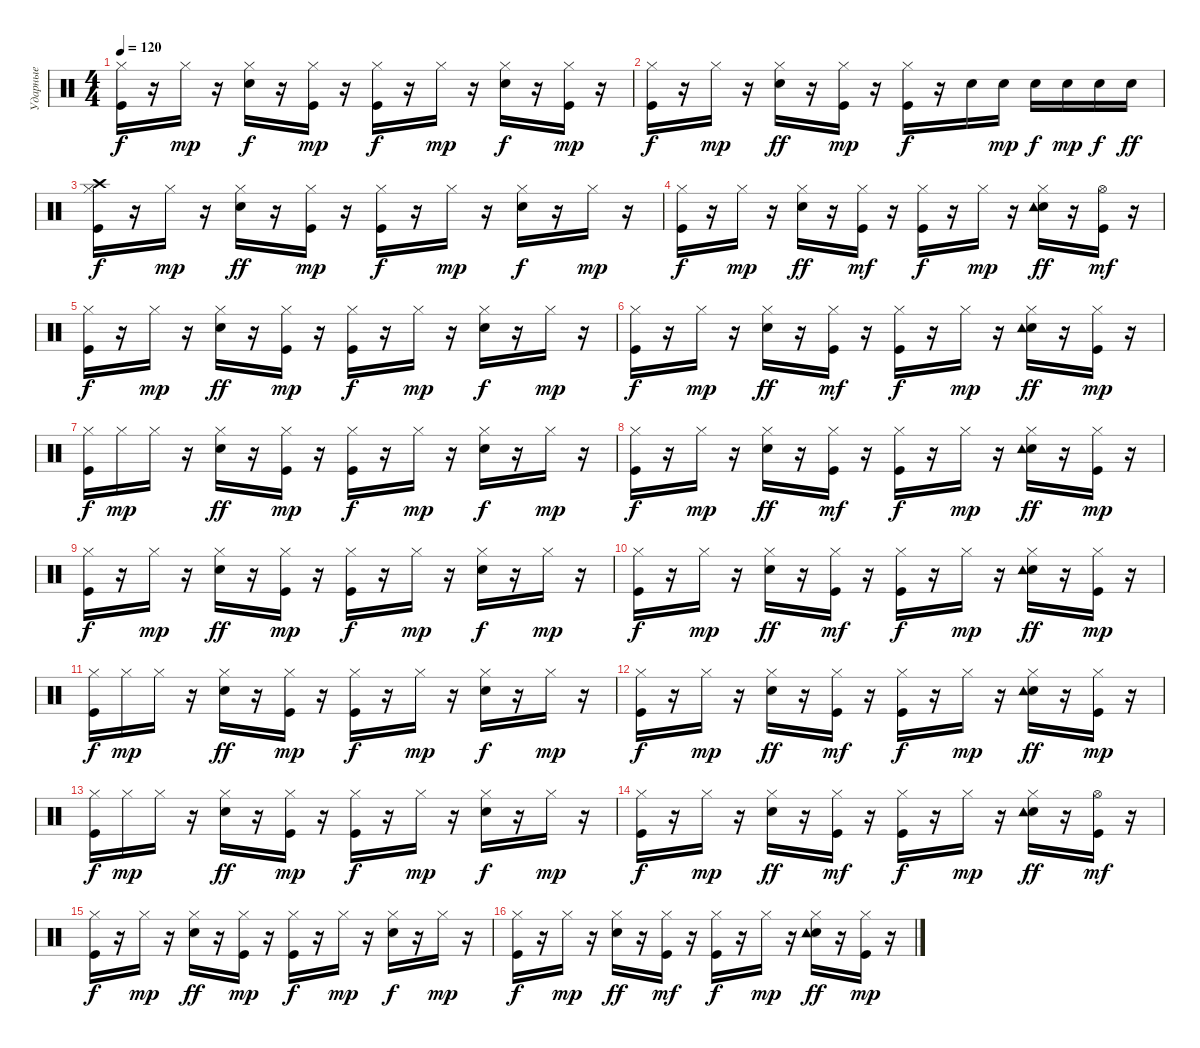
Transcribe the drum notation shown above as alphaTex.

\track ("Ударные" "Ударные") {instrument percussion}
\staff {score}
\articulation defaults
\ts (4 4)
\tempo 120
\clef neutral
\ks c
("Kick (hit)" "Hi-Hat (closed)").16{dy f} r.16 "Hi-Hat (closed)".16{dy mp} r.16 ("Snare (hit) 2" "Hi-Hat (closed)").16{dy f} r.16 ("Kick (hit)" "Hi-Hat (closed)").16{dy mp} r.16 ("Kick (hit)" "Hi-Hat (closed)").16{dy f} r.16 "Hi-Hat (closed)".16{dy mp} r.16 ("Snare (hit) 2" "Hi-Hat (closed)").16{dy f} r.16 ("Kick (hit)" "Hi-Hat (closed)").16{dy mp} r.16 |
("Kick (hit)" "Hi-Hat (closed)").16{dy f} r.16 "Hi-Hat (closed)".16{dy mp} r.16 ("Snare (hit) 2" "Hi-Hat (closed)").16{dy ff} r.16 ("Kick (hit)" "Hi-Hat (closed)").16{dy mp} r.16 ("Kick (hit)" "Hi-Hat (closed)").16{dy f} r.16 "Snare (hit) 2".16 "Snare (hit) 2".16{dy mp} "Snare (hit) 2".16{dy f} "Snare (hit) 2".16{dy mp} "Snare (hit) 2".16{dy f} "Snare (hit) 2".16{dy ff} |
("Kick (hit)" "Hi-Hat (closed)" "Crash high (hit)").16{dy f} r.16 "Hi-Hat (closed)".16{dy mp} r.16 ("Snare (hit) 2" "Hi-Hat (closed)").16{dy ff} r.16 ("Kick (hit)" "Hi-Hat (closed)").16{dy mp} r.16 ("Kick (hit)" "Hi-Hat (closed)").16{dy f} r.16 "Hi-Hat (closed)".16{dy mp} r.16 ("Snare (hit) 2" "Hi-Hat (closed)").16{dy f} r.16 "Hi-Hat (closed)".16{dy mp} r.16 |
("Kick (hit)" "Hi-Hat (closed)").16{dy f} r.16 "Hi-Hat (closed)".16{dy mp} r.16 ("Snare (hit) 2" "Hi-Hat (closed)").16{dy ff} r.16 ("Kick (hit)" "Hi-Hat (closed)").16{dy mf} r.16 ("Kick (hit)" "Hi-Hat (closed)").16{dy f} r.16 "Hi-Hat (closed)".16{dy mp} r.16 ("Snare (hit) 2" "Hi-Hat (closed)" "Tambourine (hit)").16{dy ff} r.16 ("Kick (hit)" "Hi-Hat (open)").16{dy mf} r.16 |
("Kick (hit)" "Hi-Hat (closed)").16{dy f} r.16 "Hi-Hat (closed)".16{dy mp} r.16 ("Snare (hit) 2" "Hi-Hat (closed)").16{dy ff} r.16 ("Kick (hit)" "Hi-Hat (closed)").16{dy mp} r.16 ("Kick (hit)" "Hi-Hat (closed)").16{dy f} r.16 "Hi-Hat (closed)".16{dy mp} r.16 ("Snare (hit) 2" "Hi-Hat (closed)").16{dy f} r.16 "Hi-Hat (closed)".16{dy mp} r.16 |
("Kick (hit)" "Hi-Hat (closed)").16{dy f} r.16 "Hi-Hat (closed)".16{dy mp} r.16 ("Snare (hit) 2" "Hi-Hat (closed)").16{dy ff} r.16 ("Kick (hit)" "Hi-Hat (closed)").16{dy mf} r.16 ("Kick (hit)" "Hi-Hat (closed)").16{dy f} r.16 "Hi-Hat (closed)".16{dy mp} r.16 ("Snare (hit) 2" "Hi-Hat (closed)" "Tambourine (hit)").16{dy ff} r.16 ("Kick (hit)" "Hi-Hat (closed)").16{dy mp} r.16 |
("Kick (hit)" "Hi-Hat (closed)").16{dy f} "Hi-Hat (closed)".16{dy mp} "Hi-Hat (closed)".16 r.16 ("Snare (hit) 2" "Hi-Hat (closed)").16{dy ff} r.16 ("Kick (hit)" "Hi-Hat (closed)").16{dy mp} r.16 ("Kick (hit)" "Hi-Hat (closed)").16{dy f} r.16 "Hi-Hat (closed)".16{dy mp} r.16 ("Snare (hit) 2" "Hi-Hat (closed)").16{dy f} r.16 "Hi-Hat (closed)".16{dy mp} r.16 |
("Kick (hit)" "Hi-Hat (closed)").16{dy f} r.16 "Hi-Hat (closed)".16{dy mp} r.16 ("Snare (hit) 2" "Hi-Hat (closed)").16{dy ff} r.16 ("Kick (hit)" "Hi-Hat (closed)").16{dy mf} r.16 ("Kick (hit)" "Hi-Hat (closed)").16{dy f} r.16 "Hi-Hat (closed)".16{dy mp} r.16 ("Snare (hit) 2" "Hi-Hat (closed)" "Tambourine (hit)").16{dy ff} r.16 ("Kick (hit)" "Hi-Hat (closed)").16{dy mp} r.16 |
("Kick (hit)" "Hi-Hat (closed)").16{dy f} r.16 "Hi-Hat (closed)".16{dy mp} r.16 ("Snare (hit) 2" "Hi-Hat (closed)").16{dy ff} r.16 ("Kick (hit)" "Hi-Hat (closed)").16{dy mp} r.16 ("Kick (hit)" "Hi-Hat (closed)").16{dy f} r.16 "Hi-Hat (closed)".16{dy mp} r.16 ("Snare (hit) 2" "Hi-Hat (closed)").16{dy f} r.16 "Hi-Hat (closed)".16{dy mp} r.16 |
("Kick (hit)" "Hi-Hat (closed)").16{dy f} r.16 "Hi-Hat (closed)".16{dy mp} r.16 ("Snare (hit) 2" "Hi-Hat (closed)").16{dy ff} r.16 ("Kick (hit)" "Hi-Hat (closed)").16{dy mf} r.16 ("Kick (hit)" "Hi-Hat (closed)").16{dy f} r.16 "Hi-Hat (closed)".16{dy mp} r.16 ("Snare (hit) 2" "Hi-Hat (closed)" "Tambourine (hit)").16{dy ff} r.16 ("Kick (hit)" "Hi-Hat (closed)").16{dy mp} r.16 |
("Kick (hit)" "Hi-Hat (closed)").16{dy f} "Hi-Hat (closed)".16{dy mp} "Hi-Hat (closed)".16 r.16 ("Snare (hit) 2" "Hi-Hat (closed)").16{dy ff} r.16 ("Kick (hit)" "Hi-Hat (closed)").16{dy mp} r.16 ("Kick (hit)" "Hi-Hat (closed)").16{dy f} r.16 "Hi-Hat (closed)".16{dy mp} r.16 ("Snare (hit) 2" "Hi-Hat (closed)").16{dy f} r.16 "Hi-Hat (closed)".16{dy mp} r.16 |
("Kick (hit)" "Hi-Hat (closed)").16{dy f} r.16 "Hi-Hat (closed)".16{dy mp} r.16 ("Snare (hit) 2" "Hi-Hat (closed)").16{dy ff} r.16 ("Kick (hit)" "Hi-Hat (closed)").16{dy mf} r.16 ("Kick (hit)" "Hi-Hat (closed)").16{dy f} r.16 "Hi-Hat (closed)".16{dy mp} r.16 ("Snare (hit) 2" "Hi-Hat (closed)" "Tambourine (hit)").16{dy ff} r.16 ("Kick (hit)" "Hi-Hat (closed)").16{dy mp} r.16 |
("Kick (hit)" "Hi-Hat (closed)").16{dy f} "Hi-Hat (closed)".16{dy mp} "Hi-Hat (closed)".16 r.16 ("Snare (hit) 2" "Hi-Hat (closed)").16{dy ff} r.16 ("Kick (hit)" "Hi-Hat (closed)").16{dy mp} r.16 ("Kick (hit)" "Hi-Hat (closed)").16{dy f} r.16 "Hi-Hat (closed)".16{dy mp} r.16 ("Snare (hit) 2" "Hi-Hat (closed)").16{dy f} r.16 "Hi-Hat (closed)".16{dy mp} r.16 |
("Kick (hit)" "Hi-Hat (closed)").16{dy f} r.16 "Hi-Hat (closed)".16{dy mp} r.16 ("Snare (hit) 2" "Hi-Hat (closed)").16{dy ff} r.16 ("Kick (hit)" "Hi-Hat (closed)").16{dy mf} r.16 ("Kick (hit)" "Hi-Hat (closed)").16{dy f} r.16 "Hi-Hat (closed)".16{dy mp} r.16 ("Snare (hit) 2" "Hi-Hat (closed)" "Tambourine (hit)").16{dy ff} r.16 ("Kick (hit)" "Hi-Hat (open)").16{dy mf} r.16 |
("Kick (hit)" "Hi-Hat (closed)").16{dy f} r.16 "Hi-Hat (closed)".16{dy mp} r.16 ("Snare (hit) 2" "Hi-Hat (closed)").16{dy ff} r.16 ("Kick (hit)" "Hi-Hat (closed)").16{dy mp} r.16 ("Kick (hit)" "Hi-Hat (closed)").16{dy f} r.16 "Hi-Hat (closed)".16{dy mp} r.16 ("Snare (hit) 2" "Hi-Hat (closed)").16{dy f} r.16 "Hi-Hat (closed)".16{dy mp} r.16 |
("Kick (hit)" "Hi-Hat (closed)").16{dy f} r.16 "Hi-Hat (closed)".16{dy mp} r.16 ("Snare (hit) 2" "Hi-Hat (closed)").16{dy ff} r.16 ("Kick (hit)" "Hi-Hat (closed)").16{dy mf} r.16 ("Kick (hit)" "Hi-Hat (closed)").16{dy f} r.16 "Hi-Hat (closed)".16{dy mp} r.16 ("Snare (hit) 2" "Hi-Hat (closed)" "Tambourine (hit)").16{dy ff} r.16 ("Kick (hit)" "Hi-Hat (closed)").16{dy mp} r.16
